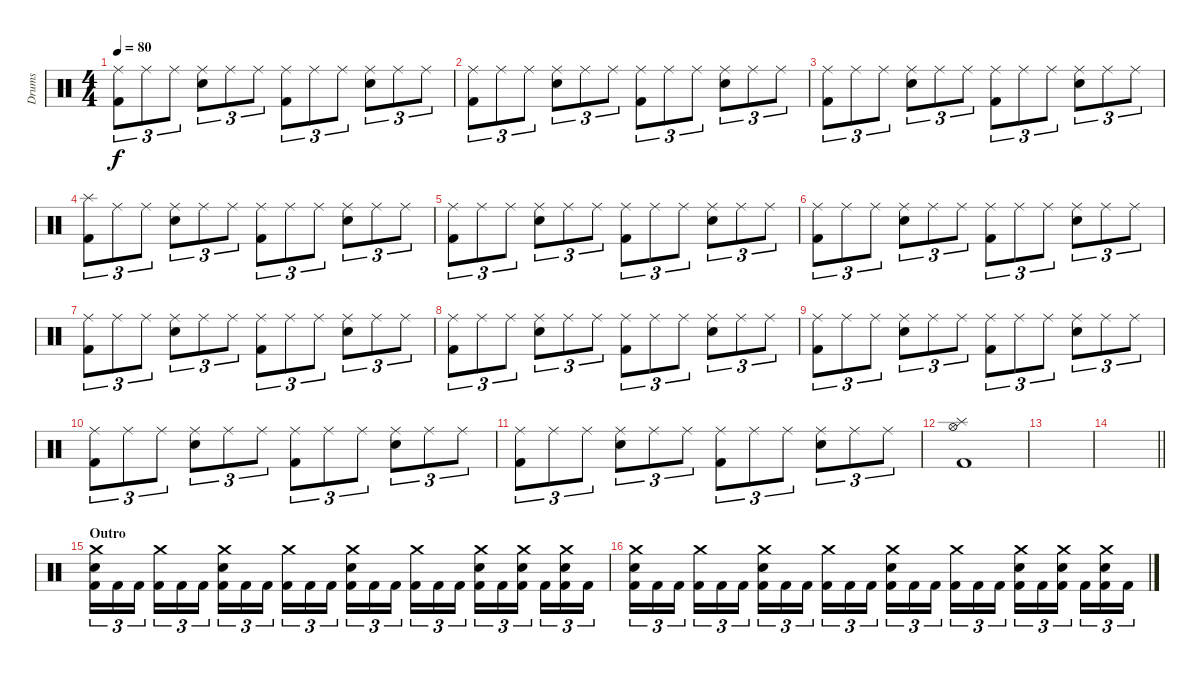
\track ("Drums" "Drums") {instrument percussion}
\staff {score}
\articulation defaults
\ts (4 4)
\tempo 80
\clef neutral
\ks c
("Ride (middle)" "Kick (hit) 2").8{tu (3 2) dy f} "Ride (middle)".8{tu (3 2)} "Ride (middle)".8{tu (3 2)} ("Ride (middle)" "Electric Snare (hit)").8{tu (3 2)} "Ride (middle)".8{tu (3 2)} "Ride (middle)".8{tu (3 2)} ("Ride (middle)" "Kick (hit) 2").8{tu (3 2)} "Ride (middle)".8{tu (3 2)} "Ride (middle)".8{tu (3 2)} ("Ride (middle)" "Electric Snare (hit)").8{tu (3 2)} "Ride (middle)".8{tu (3 2)} "Ride (middle)".8{tu (3 2)} |
("Ride (middle)" "Kick (hit) 2").8{tu (3 2)} "Ride (middle)".8{tu (3 2)} "Ride (middle)".8{tu (3 2)} ("Ride (middle)" "Electric Snare (hit)").8{tu (3 2)} "Ride (middle)".8{tu (3 2)} "Ride (middle)".8{tu (3 2)} ("Ride (middle)" "Kick (hit) 2").8{tu (3 2)} "Ride (middle)".8{tu (3 2)} "Ride (middle)".8{tu (3 2)} ("Ride (middle)" "Electric Snare (hit)").8{tu (3 2)} "Ride (middle)".8{tu (3 2)} "Ride (middle)".8{tu (3 2)} |
("Ride (middle)" "Kick (hit) 2").8{tu (3 2)} "Ride (middle)".8{tu (3 2)} "Ride (middle)".8{tu (3 2)} ("Ride (middle)" "Electric Snare (hit)").8{tu (3 2)} "Ride (middle)".8{tu (3 2)} "Ride (middle)".8{tu (3 2)} ("Ride (middle)" "Kick (hit) 2").8{tu (3 2)} "Ride (middle)".8{tu (3 2)} "Ride (middle)".8{tu (3 2)} ("Ride (middle)" "Electric Snare (hit)").8{tu (3 2)} "Ride (middle)".8{tu (3 2)} "Ride (middle)".8{tu (3 2)} |
("Splash (hit)" "Kick (hit) 2").8{tu (3 2)} "Ride (middle)".8{tu (3 2)} "Ride (middle)".8{tu (3 2)} ("Ride (middle)" "Electric Snare (hit)").8{tu (3 2)} "Ride (middle)".8{tu (3 2)} "Ride (middle)".8{tu (3 2)} ("Ride (middle)" "Kick (hit) 2").8{tu (3 2)} "Ride (middle)".8{tu (3 2)} "Ride (middle)".8{tu (3 2)} ("Ride (middle)" "Electric Snare (hit)").8{tu (3 2)} "Ride (middle)".8{tu (3 2)} "Ride (middle)".8{tu (3 2)} |
("Ride (middle)" "Kick (hit) 2").8{tu (3 2)} "Ride (middle)".8{tu (3 2)} "Ride (middle)".8{tu (3 2)} ("Ride (middle)" "Electric Snare (hit)").8{tu (3 2)} "Ride (middle)".8{tu (3 2)} "Ride (middle)".8{tu (3 2)} ("Ride (middle)" "Kick (hit) 2").8{tu (3 2)} "Ride (middle)".8{tu (3 2)} "Ride (middle)".8{tu (3 2)} ("Ride (middle)" "Electric Snare (hit)").8{tu (3 2)} "Ride (middle)".8{tu (3 2)} "Ride (middle)".8{tu (3 2)} |
("Ride (middle)" "Kick (hit) 2").8{tu (3 2)} "Ride (middle)".8{tu (3 2)} "Ride (middle)".8{tu (3 2)} ("Ride (middle)" "Electric Snare (hit)").8{tu (3 2)} "Ride (middle)".8{tu (3 2)} "Ride (middle)".8{tu (3 2)} ("Ride (middle)" "Kick (hit) 2").8{tu (3 2)} "Ride (middle)".8{tu (3 2)} "Ride (middle)".8{tu (3 2)} ("Ride (middle)" "Electric Snare (hit)").8{tu (3 2)} "Ride (middle)".8{tu (3 2)} "Ride (middle)".8{tu (3 2)} |
("Ride (middle)" "Kick (hit) 2").8{tu (3 2)} "Ride (middle)".8{tu (3 2)} "Ride (middle)".8{tu (3 2)} ("Ride (middle)" "Electric Snare (hit)").8{tu (3 2)} "Ride (middle)".8{tu (3 2)} "Ride (middle)".8{tu (3 2)} ("Ride (middle)" "Kick (hit) 2").8{tu (3 2)} "Ride (middle)".8{tu (3 2)} "Ride (middle)".8{tu (3 2)} ("Ride (middle)" "Electric Snare (hit)").8{tu (3 2)} "Ride (middle)".8{tu (3 2)} "Ride (middle)".8{tu (3 2)} |
("Ride (middle)" "Kick (hit) 2").8{tu (3 2)} "Ride (middle)".8{tu (3 2)} "Ride (middle)".8{tu (3 2)} ("Ride (middle)" "Electric Snare (hit)").8{tu (3 2)} "Ride (middle)".8{tu (3 2)} "Ride (middle)".8{tu (3 2)} ("Ride (middle)" "Kick (hit) 2").8{tu (3 2)} "Ride (middle)".8{tu (3 2)} "Ride (middle)".8{tu (3 2)} ("Ride (middle)" "Electric Snare (hit)").8{tu (3 2)} "Ride (middle)".8{tu (3 2)} "Ride (middle)".8{tu (3 2)} |
("Ride (middle)" "Kick (hit) 2").8{tu (3 2)} "Ride (middle)".8{tu (3 2)} "Ride (middle)".8{tu (3 2)} ("Ride (middle)" "Electric Snare (hit)").8{tu (3 2)} "Ride (middle)".8{tu (3 2)} "Ride (middle)".8{tu (3 2)} ("Ride (middle)" "Kick (hit) 2").8{tu (3 2)} "Ride (middle)".8{tu (3 2)} "Ride (middle)".8{tu (3 2)} ("Ride (middle)" "Electric Snare (hit)").8{tu (3 2)} "Ride (middle)".8{tu (3 2)} "Ride (middle)".8{tu (3 2)} |
("Ride (middle)" "Kick (hit) 2").8{tu (3 2)} "Ride (middle)".8{tu (3 2)} "Ride (middle)".8{tu (3 2)} ("Ride (middle)" "Electric Snare (hit)").8{tu (3 2)} "Ride (middle)".8{tu (3 2)} "Ride (middle)".8{tu (3 2)} ("Ride (middle)" "Kick (hit) 2").8{tu (3 2)} "Ride (middle)".8{tu (3 2)} "Ride (middle)".8{tu (3 2)} ("Ride (middle)" "Electric Snare (hit)").8{tu (3 2)} "Ride (middle)".8{tu (3 2)} "Ride (middle)".8{tu (3 2)} |
("Ride (middle)" "Kick (hit) 2").8{tu (3 2)} "Ride (middle)".8{tu (3 2)} "Ride (middle)".8{tu (3 2)} ("Ride (middle)" "Electric Snare (hit)").8{tu (3 2)} "Ride (middle)".8{tu (3 2)} "Ride (middle)".8{tu (3 2)} ("Ride (middle)" "Kick (hit) 2").8{tu (3 2)} "Ride (middle)".8{tu (3 2)} "Ride (middle)".8{tu (3 2)} ("Ride (middle)" "Electric Snare (hit)").8{tu (3 2)} "Ride (middle)".8{tu (3 2)} "Ride (middle)".8{tu (3 2)} |
("Splash (hit)" "Hi-Hat (open)" "Kick (hit) 2").1 |
|
\barLineRight lightlight
|
\section ("" "Outro")
("Crash medium (hit)" "Electric Snare (hit)" "Kick (hit) 2").16{tu (3 2)} "Kick (hit) 2".16{tu (3 2)} "Kick (hit) 2".16{tu (3 2) beam splitsecondary} ("Crash medium (hit)" "Kick (hit) 2").16{tu (3 2)} "Kick (hit) 2".16{tu (3 2)} "Kick (hit) 2".16{tu (3 2)} ("Crash medium (hit)" "Electric Snare (hit)" "Kick (hit) 2").16{tu (3 2)} "Kick (hit) 2".16{tu (3 2)} "Kick (hit) 2".16{tu (3 2) beam splitsecondary} ("Crash medium (hit)" "Kick (hit) 2").16{tu (3 2)} "Kick (hit) 2".16{tu (3 2)} "Kick (hit) 2".16{tu (3 2)} ("Crash medium (hit)" "Electric Snare (hit)" "Kick (hit) 2").16{tu (3 2)} "Kick (hit) 2".16{tu (3 2)} "Kick (hit) 2".16{tu (3 2) beam splitsecondary} ("Crash medium (hit)" "Kick (hit) 2").16{tu (3 2)} "Kick (hit) 2".16{tu (3 2)} "Kick (hit) 2".16{tu (3 2)} ("Crash medium (hit)" "Electric Snare (hit)" "Kick (hit) 2").16{tu (3 2)} "Kick (hit) 2".16{tu (3 2)} ("Crash medium (hit)" "Electric Snare (hit)" "Kick (hit) 2").16{tu (3 2) beam splitsecondary} "Kick (hit) 2".16{tu (3 2)} ("Crash medium (hit)" "Electric Snare (hit)" "Kick (hit) 2").16{tu (3 2)} "Kick (hit) 2".16{tu (3 2)} |
("Crash medium (hit)" "Electric Snare (hit)" "Kick (hit) 2").16{tu (3 2)} "Kick (hit) 2".16{tu (3 2)} "Kick (hit) 2".16{tu (3 2) beam splitsecondary} ("Crash medium (hit)" "Kick (hit) 2").16{tu (3 2)} "Kick (hit) 2".16{tu (3 2)} "Kick (hit) 2".16{tu (3 2)} ("Crash medium (hit)" "Electric Snare (hit)" "Kick (hit) 2").16{tu (3 2)} "Kick (hit) 2".16{tu (3 2)} "Kick (hit) 2".16{tu (3 2) beam splitsecondary} ("Crash medium (hit)" "Kick (hit) 2").16{tu (3 2)} "Kick (hit) 2".16{tu (3 2)} "Kick (hit) 2".16{tu (3 2)} ("Crash medium (hit)" "Electric Snare (hit)" "Kick (hit) 2").16{tu (3 2)} "Kick (hit) 2".16{tu (3 2)} "Kick (hit) 2".16{tu (3 2) beam splitsecondary} ("Crash medium (hit)" "Kick (hit) 2").16{tu (3 2)} "Kick (hit) 2".16{tu (3 2)} "Kick (hit) 2".16{tu (3 2)} ("Crash medium (hit)" "Electric Snare (hit)" "Kick (hit) 2").16{tu (3 2)} "Kick (hit) 2".16{tu (3 2)} ("Crash medium (hit)" "Electric Snare (hit)" "Kick (hit) 2").16{tu (3 2) beam splitsecondary} "Kick (hit) 2".16{tu (3 2)} ("Crash medium (hit)" "Electric Snare (hit)" "Kick (hit) 2").16{tu (3 2)} "Kick (hit) 2".16{tu (3 2)}
